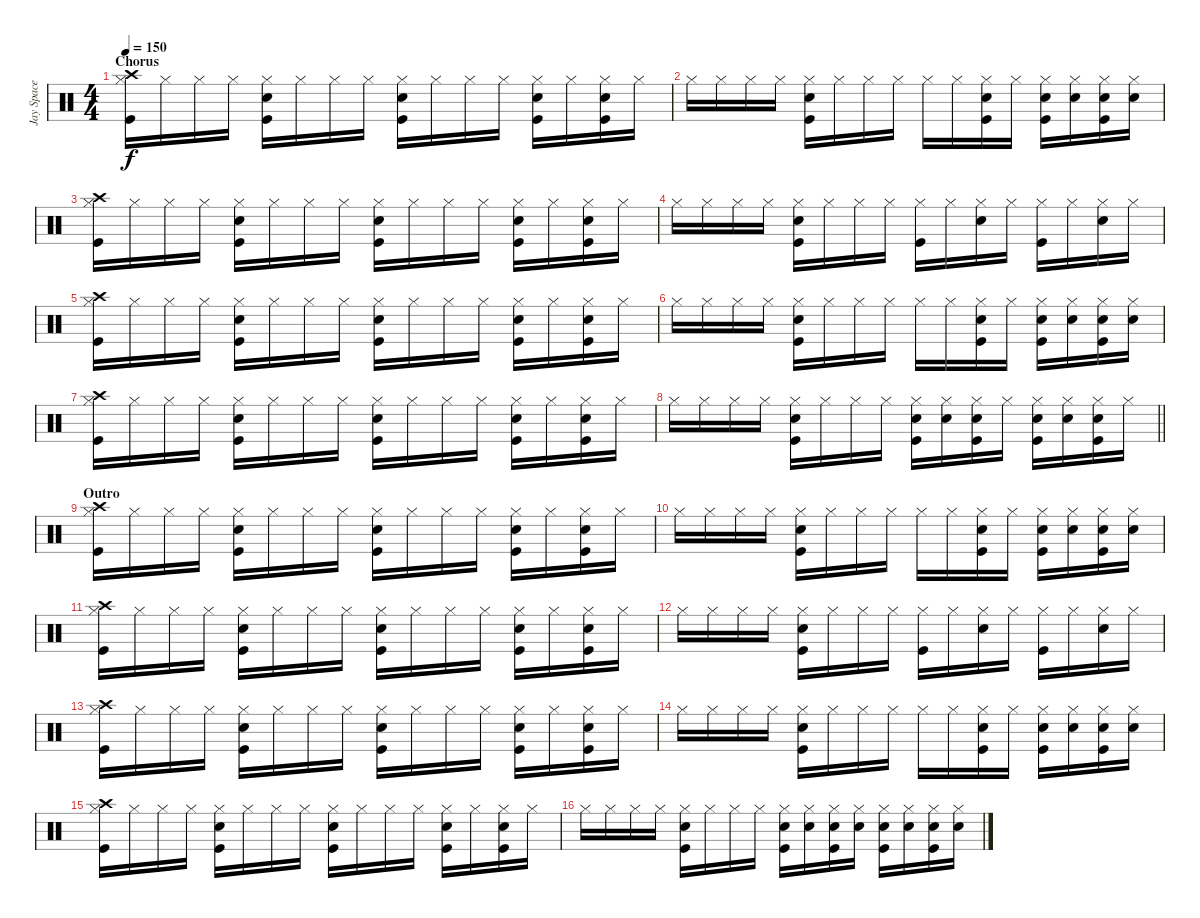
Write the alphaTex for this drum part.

\track ("Jay Space - Drums" "Jay Space ") {instrument percussion}
\staff {score}
\articulation defaults
\ts (4 4)
\section ("" "Chorus")
\tempo 150
\clef neutral
\ks c
("Hi-Hat (closed)" "Kick (hit)" "Crash high (hit)").16{dy f} "Hi-Hat (closed)".16 "Hi-Hat (closed)".16 "Hi-Hat (closed)".16 ("Hi-Hat (closed)" "Snare (hit) 2" "Kick (hit)").16 "Hi-Hat (closed)".16 "Hi-Hat (closed)".16 "Hi-Hat (closed)".16 ("Hi-Hat (closed)" "Snare (hit) 2" "Kick (hit)").16 "Hi-Hat (closed)".16 "Hi-Hat (closed)".16 "Hi-Hat (closed)".16 ("Hi-Hat (closed)" "Snare (hit) 2" "Kick (hit)").16 "Hi-Hat (closed)".16 ("Hi-Hat (closed)" "Snare (hit) 2" "Kick (hit)").16 "Hi-Hat (closed)".16 |
"Hi-Hat (closed)".16 "Hi-Hat (closed)".16 "Hi-Hat (closed)".16 "Hi-Hat (closed)".16 ("Hi-Hat (closed)" "Snare (hit) 2" "Kick (hit)").16 "Hi-Hat (closed)".16 "Hi-Hat (closed)".16 "Hi-Hat (closed)".16 "Hi-Hat (closed)".16 "Hi-Hat (closed)".16 ("Hi-Hat (closed)" "Snare (hit) 2" "Kick (hit)").16 "Hi-Hat (closed)".16 ("Hi-Hat (closed)" "Snare (hit) 2" "Kick (hit)").16 ("Hi-Hat (closed)" "Snare (hit) 2").16 ("Hi-Hat (closed)" "Snare (hit) 2" "Kick (hit)").16 ("Hi-Hat (closed)" "Snare (hit) 2").16 |
("Hi-Hat (closed)" "Kick (hit)" "Crash high (hit)").16 "Hi-Hat (closed)".16 "Hi-Hat (closed)".16 "Hi-Hat (closed)".16 ("Hi-Hat (closed)" "Snare (hit) 2" "Kick (hit)").16 "Hi-Hat (closed)".16 "Hi-Hat (closed)".16 "Hi-Hat (closed)".16 ("Hi-Hat (closed)" "Snare (hit) 2" "Kick (hit)").16 "Hi-Hat (closed)".16 "Hi-Hat (closed)".16 "Hi-Hat (closed)".16 ("Hi-Hat (closed)" "Snare (hit) 2" "Kick (hit)").16 "Hi-Hat (closed)".16 ("Hi-Hat (closed)" "Snare (hit) 2" "Kick (hit)").16 "Hi-Hat (closed)".16 |
"Hi-Hat (closed)".16 "Hi-Hat (closed)".16 "Hi-Hat (closed)".16 "Hi-Hat (closed)".16 ("Hi-Hat (closed)" "Snare (hit) 2" "Kick (hit)").16 "Hi-Hat (closed)".16 "Hi-Hat (closed)".16 "Hi-Hat (closed)".16 ("Hi-Hat (closed)" "Kick (hit)").16 "Hi-Hat (closed)".16 ("Hi-Hat (closed)" "Snare (hit) 2").16 "Hi-Hat (closed)".16 ("Hi-Hat (closed)" "Kick (hit)").16 "Hi-Hat (closed)".16 ("Hi-Hat (closed)" "Snare (hit) 2").16 "Hi-Hat (closed)".16 |
("Hi-Hat (closed)" "Kick (hit)" "Crash high (hit)").16 "Hi-Hat (closed)".16 "Hi-Hat (closed)".16 "Hi-Hat (closed)".16 ("Hi-Hat (closed)" "Snare (hit) 2" "Kick (hit)").16 "Hi-Hat (closed)".16 "Hi-Hat (closed)".16 "Hi-Hat (closed)".16 ("Hi-Hat (closed)" "Snare (hit) 2" "Kick (hit)").16 "Hi-Hat (closed)".16 "Hi-Hat (closed)".16 "Hi-Hat (closed)".16 ("Hi-Hat (closed)" "Snare (hit) 2" "Kick (hit)").16 "Hi-Hat (closed)".16 ("Hi-Hat (closed)" "Snare (hit) 2" "Kick (hit)").16 "Hi-Hat (closed)".16 |
"Hi-Hat (closed)".16 "Hi-Hat (closed)".16 "Hi-Hat (closed)".16 "Hi-Hat (closed)".16 ("Hi-Hat (closed)" "Snare (hit) 2" "Kick (hit)").16 "Hi-Hat (closed)".16 "Hi-Hat (closed)".16 "Hi-Hat (closed)".16 "Hi-Hat (closed)".16 "Hi-Hat (closed)".16 ("Hi-Hat (closed)" "Snare (hit) 2" "Kick (hit)").16 "Hi-Hat (closed)".16 ("Hi-Hat (closed)" "Snare (hit) 2" "Kick (hit)").16 ("Hi-Hat (closed)" "Snare (hit) 2").16 ("Hi-Hat (closed)" "Snare (hit) 2" "Kick (hit)").16 ("Hi-Hat (closed)" "Snare (hit) 2").16 |
("Hi-Hat (closed)" "Kick (hit)" "Crash high (hit)").16 "Hi-Hat (closed)".16 "Hi-Hat (closed)".16 "Hi-Hat (closed)".16 ("Hi-Hat (closed)" "Snare (hit) 2" "Kick (hit)").16 "Hi-Hat (closed)".16 "Hi-Hat (closed)".16 "Hi-Hat (closed)".16 ("Hi-Hat (closed)" "Snare (hit) 2" "Kick (hit)").16 "Hi-Hat (closed)".16 "Hi-Hat (closed)".16 "Hi-Hat (closed)".16 ("Hi-Hat (closed)" "Snare (hit) 2" "Kick (hit)").16 "Hi-Hat (closed)".16 ("Hi-Hat (closed)" "Snare (hit) 2" "Kick (hit)").16 "Hi-Hat (closed)".16 |
\barLineRight lightlight "Hi-Hat (closed)".16 "Hi-Hat (closed)".16 "Hi-Hat (closed)".16 "Hi-Hat (closed)".16
("Hi-Hat (closed)" "Snare (hit) 2" "Kick (hit)").16 "Hi-Hat (closed)".16 "Hi-Hat (closed)".16 "Hi-Hat (closed)".16 ("Hi-Hat (closed)" "Snare (hit) 2" "Kick (hit)").16 ("Hi-Hat (closed)" "Snare (hit) 2").16 ("Hi-Hat (closed)" "Snare (hit) 2" "Kick (hit)").16 "Hi-Hat (closed)".16 ("Hi-Hat (closed)" "Snare (hit) 2" "Kick (hit)").16 ("Hi-Hat (closed)" "Snare (hit) 2").16 ("Hi-Hat (closed)" "Snare (hit) 2" "Kick (hit)").16 "Hi-Hat (closed)".16 |
\section ("" "Outro")
("Hi-Hat (closed)" "Kick (hit)" "Crash high (hit)").16 "Hi-Hat (closed)".16 "Hi-Hat (closed)".16 "Hi-Hat (closed)".16 ("Hi-Hat (closed)" "Snare (hit) 2" "Kick (hit)").16 "Hi-Hat (closed)".16 "Hi-Hat (closed)".16 "Hi-Hat (closed)".16 ("Hi-Hat (closed)" "Snare (hit) 2" "Kick (hit)").16 "Hi-Hat (closed)".16 "Hi-Hat (closed)".16 "Hi-Hat (closed)".16 ("Hi-Hat (closed)" "Snare (hit) 2" "Kick (hit)").16 "Hi-Hat (closed)".16 ("Hi-Hat (closed)" "Snare (hit) 2" "Kick (hit)").16 "Hi-Hat (closed)".16 |
"Hi-Hat (closed)".16 "Hi-Hat (closed)".16 "Hi-Hat (closed)".16 "Hi-Hat (closed)".16 ("Hi-Hat (closed)" "Snare (hit) 2" "Kick (hit)").16 "Hi-Hat (closed)".16 "Hi-Hat (closed)".16 "Hi-Hat (closed)".16 "Hi-Hat (closed)".16 "Hi-Hat (closed)".16 ("Hi-Hat (closed)" "Snare (hit) 2" "Kick (hit)").16 "Hi-Hat (closed)".16 ("Hi-Hat (closed)" "Snare (hit) 2" "Kick (hit)").16 ("Hi-Hat (closed)" "Snare (hit) 2").16 ("Hi-Hat (closed)" "Snare (hit) 2" "Kick (hit)").16 ("Hi-Hat (closed)" "Snare (hit) 2").16 |
("Hi-Hat (closed)" "Kick (hit)" "Crash high (hit)").16 "Hi-Hat (closed)".16 "Hi-Hat (closed)".16 "Hi-Hat (closed)".16 ("Hi-Hat (closed)" "Snare (hit) 2" "Kick (hit)").16 "Hi-Hat (closed)".16 "Hi-Hat (closed)".16 "Hi-Hat (closed)".16 ("Hi-Hat (closed)" "Snare (hit) 2" "Kick (hit)").16 "Hi-Hat (closed)".16 "Hi-Hat (closed)".16 "Hi-Hat (closed)".16 ("Hi-Hat (closed)" "Snare (hit) 2" "Kick (hit)").16 "Hi-Hat (closed)".16 ("Hi-Hat (closed)" "Snare (hit) 2" "Kick (hit)").16 "Hi-Hat (closed)".16 |
"Hi-Hat (closed)".16 "Hi-Hat (closed)".16 "Hi-Hat (closed)".16 "Hi-Hat (closed)".16 ("Hi-Hat (closed)" "Snare (hit) 2" "Kick (hit)").16 "Hi-Hat (closed)".16 "Hi-Hat (closed)".16 "Hi-Hat (closed)".16 ("Hi-Hat (closed)" "Kick (hit)").16 "Hi-Hat (closed)".16 ("Hi-Hat (closed)" "Snare (hit) 2").16 "Hi-Hat (closed)".16 ("Hi-Hat (closed)" "Kick (hit)").16 "Hi-Hat (closed)".16 ("Hi-Hat (closed)" "Snare (hit) 2").16 "Hi-Hat (closed)".16 |
("Hi-Hat (closed)" "Kick (hit)" "Crash high (hit)").16 "Hi-Hat (closed)".16 "Hi-Hat (closed)".16 "Hi-Hat (closed)".16 ("Hi-Hat (closed)" "Snare (hit) 2" "Kick (hit)").16 "Hi-Hat (closed)".16 "Hi-Hat (closed)".16 "Hi-Hat (closed)".16 ("Hi-Hat (closed)" "Snare (hit) 2" "Kick (hit)").16 "Hi-Hat (closed)".16 "Hi-Hat (closed)".16 "Hi-Hat (closed)".16 ("Hi-Hat (closed)" "Snare (hit) 2" "Kick (hit)").16 "Hi-Hat (closed)".16 ("Hi-Hat (closed)" "Snare (hit) 2" "Kick (hit)").16 "Hi-Hat (closed)".16 |
"Hi-Hat (closed)".16 "Hi-Hat (closed)".16 "Hi-Hat (closed)".16 "Hi-Hat (closed)".16 ("Hi-Hat (closed)" "Snare (hit) 2" "Kick (hit)").16 "Hi-Hat (closed)".16 "Hi-Hat (closed)".16 "Hi-Hat (closed)".16 "Hi-Hat (closed)".16 "Hi-Hat (closed)".16 ("Hi-Hat (closed)" "Snare (hit) 2" "Kick (hit)").16 "Hi-Hat (closed)".16 ("Hi-Hat (closed)" "Snare (hit) 2" "Kick (hit)").16 ("Hi-Hat (closed)" "Snare (hit) 2").16 ("Hi-Hat (closed)" "Snare (hit) 2" "Kick (hit)").16 ("Hi-Hat (closed)" "Snare (hit) 2").16 |
("Hi-Hat (closed)" "Kick (hit)" "Crash high (hit)").16 "Hi-Hat (closed)".16 "Hi-Hat (closed)".16 "Hi-Hat (closed)".16 ("Hi-Hat (closed)" "Snare (hit) 2" "Kick (hit)").16 "Hi-Hat (closed)".16 "Hi-Hat (closed)".16 "Hi-Hat (closed)".16 ("Hi-Hat (closed)" "Snare (hit) 2" "Kick (hit)").16 "Hi-Hat (closed)".16 "Hi-Hat (closed)".16 "Hi-Hat (closed)".16 ("Hi-Hat (closed)" "Snare (hit) 2" "Kick (hit)").16 "Hi-Hat (closed)".16 ("Hi-Hat (closed)" "Snare (hit) 2" "Kick (hit)").16 "Hi-Hat (closed)".16 |
"Hi-Hat (closed)".16 "Hi-Hat (closed)".16 "Hi-Hat (closed)".16 "Hi-Hat (closed)".16 ("Hi-Hat (closed)" "Snare (hit) 2" "Kick (hit)").16 "Hi-Hat (closed)".16 "Hi-Hat (closed)".16 "Hi-Hat (closed)".16 ("Hi-Hat (closed)" "Snare (hit) 2" "Kick (hit)").16 ("Hi-Hat (closed)" "Snare (hit) 2").16 ("Hi-Hat (closed)" "Snare (hit) 2" "Kick (hit)").16 ("Hi-Hat (closed)" "Snare (hit) 2").16 ("Hi-Hat (closed)" "Snare (hit) 2" "Kick (hit)").16 ("Hi-Hat (closed)" "Snare (hit) 2").16 ("Hi-Hat (closed)" "Snare (hit) 2" "Kick (hit)").16 ("Hi-Hat (closed)" "Snare (hit) 2").16
